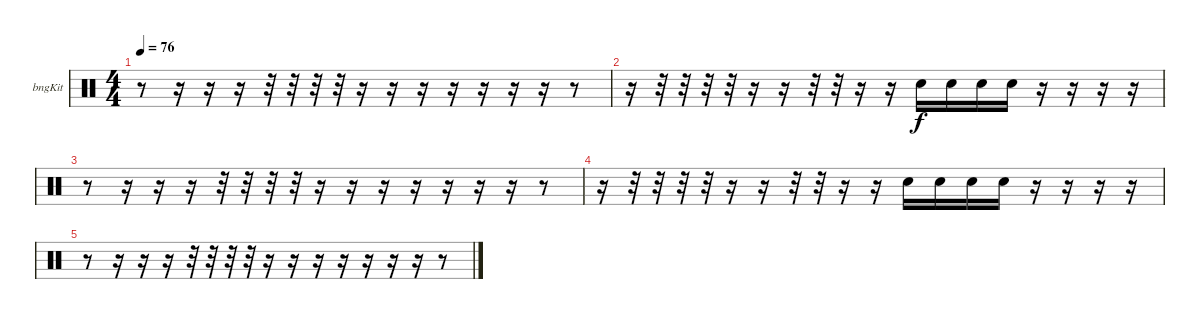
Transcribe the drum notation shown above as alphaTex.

\bracketExtendMode groupsimilarinstruments
\firstSystemTrackNameOrientation horizontal
\otherSystemsTrackNameOrientation horizontal
\track ("Bongos" "bngKit") {instrument percussion}
\staff {score}
\articulation defaults
\ts (4 4)
\tempo 76
\clef neutral
\ks c
r.8{dy f} r.16 r.16 r.16 r.32 r.32 r.32 r.32 r.16 r.16 r.16 r.16 r.16 r.16 r.16 r.8 |
r.16 r.32 r.32 r.32 r.32 r.16 r.16 r.32 r.32 r.16 r.16 "Snare (hit) 2".16 "Snare (hit) 2".16 "Snare (hit) 2".16 "Snare (hit) 2".16 r.16 r.16 r.16 r.16 |
r.8 r.16 r.16 r.16 r.32 r.32 r.32 r.32 r.16 r.16 r.16 r.16 r.16 r.16 r.16 r.8 |
r.16 r.32 r.32 r.32 r.32 r.16 r.16 r.32 r.32 r.16 r.16 "Snare (hit) 2".16 "Snare (hit) 2".16 "Snare (hit) 2".16 "Snare (hit) 2".16 r.16 r.16 r.16 r.16 |
r.8 r.16 r.16 r.16 r.32 r.32 r.32 r.32 r.16 r.16 r.16 r.16 r.16 r.16 r.16 r.8
